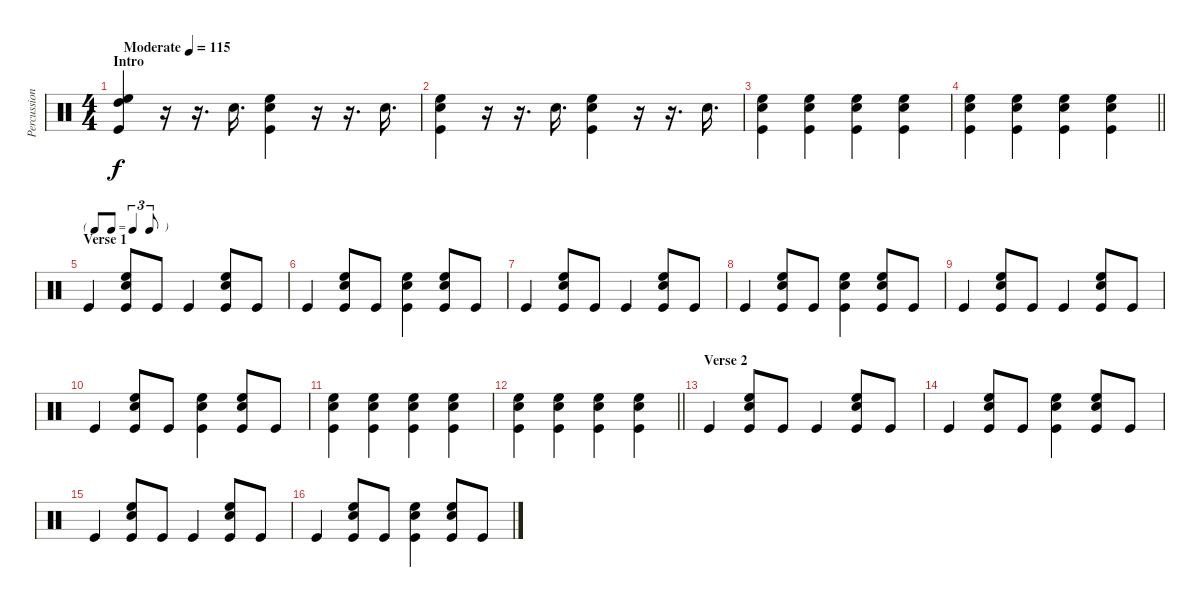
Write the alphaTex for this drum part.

\track ("Percussions" "Percussion") {instrument percussion}
\staff {score}
\articulation defaults
\ts (4 4)
\section ("" "Intro")
\tempo (115 "Moderate")
\clef neutral
\ks c
("High Floor Tom (hit)" "High Tom (hit)" "Kick (hit)").4{dy f} r.16 r.16{d} "Electric Snare (hit)".16{d} ("High Floor Tom (hit)" "Snare (hit) 2" "Kick (hit)").4 r.16 r.16{d} "Electric Snare (hit)".16{d} |
("High Floor Tom (hit)" "Snare (hit) 2" "Kick (hit)").4 r.16 r.16{d} "Electric Snare (hit)".16{d} ("High Floor Tom (hit)" "Snare (hit) 2" "Kick (hit)").4 r.16 r.16{d} "Electric Snare (hit)".16{d} |
("High Floor Tom (hit)" "Snare (hit) 2" "Kick (hit)").4 ("High Floor Tom (hit)" "Snare (hit) 2" "Kick (hit)").4 ("High Floor Tom (hit)" "Snare (hit) 2" "Kick (hit)").4 ("High Floor Tom (hit)" "Snare (hit) 2" "Kick (hit)").4 |
\barLineRight lightlight
("High Floor Tom (hit)" "Snare (hit) 2" "Kick (hit)").4 ("High Floor Tom (hit)" "Snare (hit) 2" "Kick (hit)").4 ("High Floor Tom (hit)" "Snare (hit) 2" "Kick (hit)").4 ("High Floor Tom (hit)" "Snare (hit) 2" "Kick (hit)").4 |
\tf triplet8th
\section ("" "Verse 1")
"Kick (hit)".4 ("High Floor Tom (hit)" "Snare (hit) 2" "Kick (hit)").8 "Kick (hit)".8 "Kick (hit)".4 ("High Floor Tom (hit)" "Snare (hit) 2" "Kick (hit)").8 "Kick (hit)".8 |
"Kick (hit)".4 ("High Floor Tom (hit)" "Snare (hit) 2" "Kick (hit)").8 "Kick (hit)".8 ("High Floor Tom (hit)" "Snare (hit) 2" "Kick (hit)").4 ("High Floor Tom (hit)" "Snare (hit) 2" "Kick (hit)").8 "Kick (hit)".8 |
"Kick (hit)".4 ("High Floor Tom (hit)" "Snare (hit) 2" "Kick (hit)").8 "Kick (hit)".8 "Kick (hit)".4 ("High Floor Tom (hit)" "Snare (hit) 2" "Kick (hit)").8 "Kick (hit)".8 |
"Kick (hit)".4 ("High Floor Tom (hit)" "Snare (hit) 2" "Kick (hit)").8 "Kick (hit)".8 ("High Floor Tom (hit)" "Snare (hit) 2" "Kick (hit)").4 ("High Floor Tom (hit)" "Snare (hit) 2" "Kick (hit)").8 "Kick (hit)".8 |
"Kick (hit)".4 ("High Floor Tom (hit)" "Snare (hit) 2" "Kick (hit)").8 "Kick (hit)".8 "Kick (hit)".4 ("High Floor Tom (hit)" "Snare (hit) 2" "Kick (hit)").8 "Kick (hit)".8 |
"Kick (hit)".4 ("High Floor Tom (hit)" "Snare (hit) 2" "Kick (hit)").8 "Kick (hit)".8 ("High Floor Tom (hit)" "Snare (hit) 2" "Kick (hit)").4 ("High Floor Tom (hit)" "Snare (hit) 2" "Kick (hit)").8 "Kick (hit)".8 |
("High Floor Tom (hit)" "Snare (hit) 2" "Kick (hit)").4 ("High Floor Tom (hit)" "Snare (hit) 2" "Kick (hit)").4 ("High Floor Tom (hit)" "Snare (hit) 2" "Kick (hit)").4 ("High Floor Tom (hit)" "Snare (hit) 2" "Kick (hit)").4 |
\barLineRight lightlight
("High Floor Tom (hit)" "Snare (hit) 2" "Kick (hit)").4 ("High Floor Tom (hit)" "Snare (hit) 2" "Kick (hit)").4 ("High Floor Tom (hit)" "Snare (hit) 2" "Kick (hit)").4 ("High Floor Tom (hit)" "Snare (hit) 2" "Kick (hit)").4 |
\section ("" "Verse 2")
"Kick (hit)".4 ("High Floor Tom (hit)" "Snare (hit) 2" "Kick (hit)").8 "Kick (hit)".8 "Kick (hit)".4 ("High Floor Tom (hit)" "Snare (hit) 2" "Kick (hit)").8 "Kick (hit)".8 |
"Kick (hit)".4 ("High Floor Tom (hit)" "Snare (hit) 2" "Kick (hit)").8 "Kick (hit)".8 ("High Floor Tom (hit)" "Snare (hit) 2" "Kick (hit)").4 ("High Floor Tom (hit)" "Snare (hit) 2" "Kick (hit)").8 "Kick (hit)".8 |
"Kick (hit)".4 ("High Floor Tom (hit)" "Snare (hit) 2" "Kick (hit)").8 "Kick (hit)".8 "Kick (hit)".4 ("High Floor Tom (hit)" "Snare (hit) 2" "Kick (hit)").8 "Kick (hit)".8 |
"Kick (hit)".4 ("High Floor Tom (hit)" "Snare (hit) 2" "Kick (hit)").8 "Kick (hit)".8 ("High Floor Tom (hit)" "Snare (hit) 2" "Kick (hit)").4 ("High Floor Tom (hit)" "Snare (hit) 2" "Kick (hit)").8 "Kick (hit)".8
